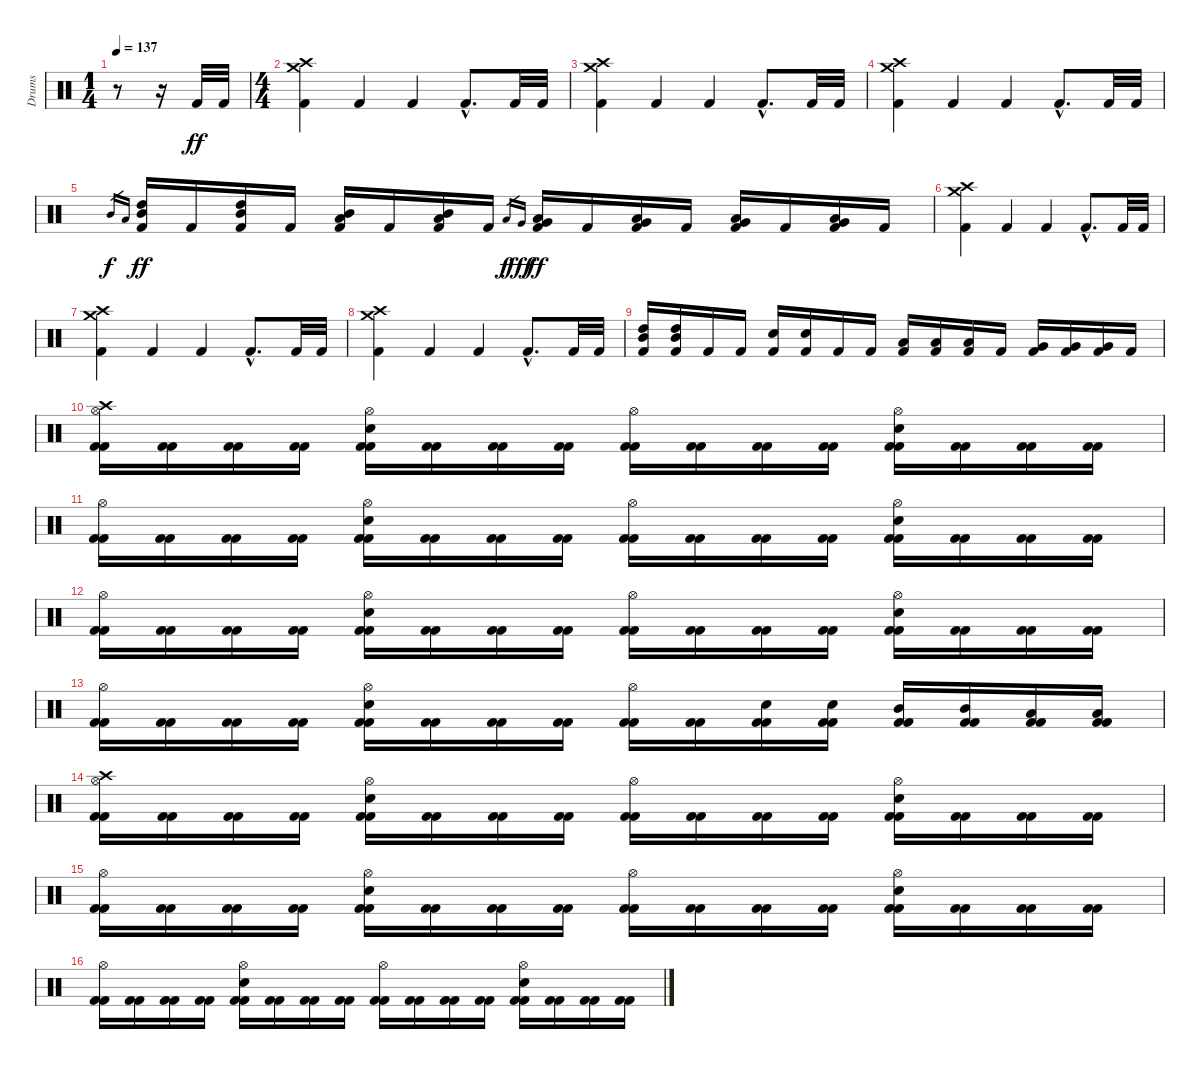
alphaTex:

\track ("Drums" "Drums") {instrument percussion}
\staff {score}
\articulation defaults
\ts (1 4)
\tempo 137
\clef neutral
\ks c
r.8{dy ff} r.16 "Kick (hit) 2".32 "Kick (hit) 2".32 |
\ts (4 4)
("Crash medium (hit)" "Crash high (hit)" "Kick (hit) 2").4 "Kick (hit) 2".4 "Kick (hit) 2".4 "Kick (hit) 2"{hac}.8{d} "Kick (hit) 2".32 "Kick (hit) 2".32 |
("Crash medium (hit)" "Crash high (hit)" "Kick (hit) 2").4 "Kick (hit) 2".4 "Kick (hit) 2".4 "Kick (hit) 2"{hac}.8{d} "Kick (hit) 2".32 "Kick (hit) 2".32 |
("Crash medium (hit)" "Crash high (hit)" "Kick (hit) 2").4 "Kick (hit) 2".4 "Kick (hit) 2".4 "Kick (hit) 2"{hac}.8{d} "Kick (hit) 2".32 "Kick (hit) 2".32 |
"Mid Tom (hit)".16{gr dy f} "Low Tom (hit)".16{gr} ("High Tom (hit)" "Mid Tom (hit)" "Kick (hit) 2").16{dy ff} "Kick (hit) 2".16 ("High Tom (hit)" "Mid Tom (hit)" "Kick (hit) 2").16 "Kick (hit) 2".16 ("Mid Tom (hit)" "Low Tom (hit)" "Kick (hit) 2").16 "Kick (hit) 2".16 ("Mid Tom (hit)" "Low Tom (hit)" "Kick (hit) 2").16 "Kick (hit) 2".16 "Low Tom (hit)".16{gr dy f} "Very Low Tom (hit)".16{gr dy fff} ("Low Tom (hit)" "Very Low Tom (hit)" "Kick (hit) 2").16{dy ff} "Kick (hit) 2".16 ("Low Tom (hit)" "Very Low Tom (hit)" "Kick (hit) 2").16 "Kick (hit) 2".16 ("Very Low Tom (hit)" "Low Floor Tom (hit)" "Kick (hit) 2").16 "Kick (hit) 2".16 ("Very Low Tom (hit)" "Low Floor Tom (hit)" "Kick (hit) 2").16 "Kick (hit) 2".16 |
("Crash medium (hit)" "Crash high (hit)" "Kick (hit) 2").4 "Kick (hit) 2".4 "Kick (hit) 2".4 "Kick (hit) 2"{hac}.8{d} "Kick (hit) 2".32 "Kick (hit) 2".32 |
("Crash medium (hit)" "Crash high (hit)" "Kick (hit) 2").4 "Kick (hit) 2".4 "Kick (hit) 2".4 "Kick (hit) 2"{hac}.8{d} "Kick (hit) 2".32 "Kick (hit) 2".32 |
("Crash medium (hit)" "Crash high (hit)" "Kick (hit) 2").4 "Kick (hit) 2".4 "Kick (hit) 2".4 "Kick (hit) 2"{hac}.8{d} "Kick (hit) 2".32 "Kick (hit) 2".32 |
("High Tom (hit)" "Mid Tom (hit)" "Kick (hit) 2").16 ("High Tom (hit)" "Mid Tom (hit)" "Kick (hit) 2").16 "Kick (hit) 2".16 "Kick (hit) 2".16 ("Electric Snare (hit)" "Kick (hit) 2").16 ("Electric Snare (hit)" "Kick (hit) 2").16 "Kick (hit) 2".16 "Kick (hit) 2".16 ("Low Tom (hit)" "Kick (hit) 2").16 ("Low Tom (hit)" "Kick (hit) 2").16 ("Low Tom (hit)" "Kick (hit) 2").16 "Kick (hit) 2".16 ("Very Low Tom (hit)" "Kick (hit) 2").16 ("Very Low Tom (hit)" "Kick (hit) 2").16 ("Very Low Tom (hit)" "Kick (hit) 2").16 "Kick (hit) 2".16 |
("Hi-Hat (open)" "Crash high (hit)" "Kick (hit) 2" "Kick (hit) 2").16 ("Kick (hit) 2" "Kick (hit) 2").16 ("Kick (hit) 2" "Kick (hit) 2").16 ("Kick (hit) 2" "Kick (hit) 2").16 ("Hi-Hat (open)" "Electric Snare (hit)" "Kick (hit) 2" "Kick (hit) 2").16 ("Kick (hit) 2" "Kick (hit) 2").16 ("Kick (hit) 2" "Kick (hit) 2").16 ("Kick (hit) 2" "Kick (hit) 2").16 ("Hi-Hat (open)" "Kick (hit) 2" "Kick (hit) 2").16 ("Kick (hit) 2" "Kick (hit) 2").16 ("Kick (hit) 2" "Kick (hit) 2").16 ("Kick (hit) 2" "Kick (hit) 2").16 ("Hi-Hat (open)" "Electric Snare (hit)" "Kick (hit) 2" "Kick (hit) 2").16 ("Kick (hit) 2" "Kick (hit) 2").16 ("Kick (hit) 2" "Kick (hit) 2").16 ("Kick (hit) 2" "Kick (hit) 2").16 |
("Hi-Hat (open)" "Kick (hit) 2" "Kick (hit) 2").16 ("Kick (hit) 2" "Kick (hit) 2").16 ("Kick (hit) 2" "Kick (hit) 2").16 ("Kick (hit) 2" "Kick (hit) 2").16 ("Hi-Hat (open)" "Electric Snare (hit)" "Kick (hit) 2" "Kick (hit) 2").16 ("Kick (hit) 2" "Kick (hit) 2").16 ("Kick (hit) 2" "Kick (hit) 2").16 ("Kick (hit) 2" "Kick (hit) 2").16 ("Hi-Hat (open)" "Kick (hit) 2" "Kick (hit) 2").16 ("Kick (hit) 2" "Kick (hit) 2").16 ("Kick (hit) 2" "Kick (hit) 2").16 ("Kick (hit) 2" "Kick (hit) 2").16 ("Hi-Hat (open)" "Electric Snare (hit)" "Kick (hit) 2" "Kick (hit) 2").16 ("Kick (hit) 2" "Kick (hit) 2").16 ("Kick (hit) 2" "Kick (hit) 2").16 ("Kick (hit) 2" "Kick (hit) 2").16 |
("Hi-Hat (open)" "Kick (hit) 2" "Kick (hit) 2").16 ("Kick (hit) 2" "Kick (hit) 2").16 ("Kick (hit) 2" "Kick (hit) 2").16 ("Kick (hit) 2" "Kick (hit) 2").16 ("Hi-Hat (open)" "Electric Snare (hit)" "Kick (hit) 2" "Kick (hit) 2").16 ("Kick (hit) 2" "Kick (hit) 2").16 ("Kick (hit) 2" "Kick (hit) 2").16 ("Kick (hit) 2" "Kick (hit) 2").16 ("Hi-Hat (open)" "Kick (hit) 2" "Kick (hit) 2").16 ("Kick (hit) 2" "Kick (hit) 2").16 ("Kick (hit) 2" "Kick (hit) 2").16 ("Kick (hit) 2" "Kick (hit) 2").16 ("Hi-Hat (open)" "Electric Snare (hit)" "Kick (hit) 2" "Kick (hit) 2").16 ("Kick (hit) 2" "Kick (hit) 2").16 ("Kick (hit) 2" "Kick (hit) 2").16 ("Kick (hit) 2" "Kick (hit) 2").16 |
("Hi-Hat (open)" "Kick (hit) 2" "Kick (hit) 2").16 ("Kick (hit) 2" "Kick (hit) 2").16 ("Kick (hit) 2" "Kick (hit) 2").16 ("Kick (hit) 2" "Kick (hit) 2").16 ("Hi-Hat (open)" "Electric Snare (hit)" "Kick (hit) 2" "Kick (hit) 2").16 ("Kick (hit) 2" "Kick (hit) 2").16 ("Kick (hit) 2" "Kick (hit) 2").16 ("Kick (hit) 2" "Kick (hit) 2").16 ("Hi-Hat (open)" "Kick (hit) 2" "Kick (hit) 2").16 ("Kick (hit) 2" "Kick (hit) 2").16 ("Electric Snare (hit)" "Kick (hit) 2" "Kick (hit) 2").16 ("Electric Snare (hit)" "Kick (hit) 2" "Kick (hit) 2").16 ("Mid Tom (hit)" "Kick (hit) 2" "Kick (hit) 2").16 ("Mid Tom (hit)" "Kick (hit) 2" "Kick (hit) 2").16 ("Low Tom (hit)" "Kick (hit) 2" "Kick (hit) 2").16 ("Low Tom (hit)" "Kick (hit) 2" "Kick (hit) 2").16 |
("Hi-Hat (open)" "Crash high (hit)" "Kick (hit) 2" "Kick (hit) 2").16 ("Kick (hit) 2" "Kick (hit) 2").16 ("Kick (hit) 2" "Kick (hit) 2").16 ("Kick (hit) 2" "Kick (hit) 2").16 ("Hi-Hat (open)" "Electric Snare (hit)" "Kick (hit) 2" "Kick (hit) 2").16 ("Kick (hit) 2" "Kick (hit) 2").16 ("Kick (hit) 2" "Kick (hit) 2").16 ("Kick (hit) 2" "Kick (hit) 2").16 ("Hi-Hat (open)" "Kick (hit) 2" "Kick (hit) 2").16 ("Kick (hit) 2" "Kick (hit) 2").16 ("Kick (hit) 2" "Kick (hit) 2").16 ("Kick (hit) 2" "Kick (hit) 2").16 ("Hi-Hat (open)" "Electric Snare (hit)" "Kick (hit) 2" "Kick (hit) 2").16 ("Kick (hit) 2" "Kick (hit) 2").16 ("Kick (hit) 2" "Kick (hit) 2").16 ("Kick (hit) 2" "Kick (hit) 2").16 |
("Hi-Hat (open)" "Kick (hit) 2" "Kick (hit) 2").16 ("Kick (hit) 2" "Kick (hit) 2").16 ("Kick (hit) 2" "Kick (hit) 2").16 ("Kick (hit) 2" "Kick (hit) 2").16 ("Hi-Hat (open)" "Electric Snare (hit)" "Kick (hit) 2" "Kick (hit) 2").16 ("Kick (hit) 2" "Kick (hit) 2").16 ("Kick (hit) 2" "Kick (hit) 2").16 ("Kick (hit) 2" "Kick (hit) 2").16 ("Hi-Hat (open)" "Kick (hit) 2" "Kick (hit) 2").16 ("Kick (hit) 2" "Kick (hit) 2").16 ("Kick (hit) 2" "Kick (hit) 2").16 ("Kick (hit) 2" "Kick (hit) 2").16 ("Hi-Hat (open)" "Electric Snare (hit)" "Kick (hit) 2" "Kick (hit) 2").16 ("Kick (hit) 2" "Kick (hit) 2").16 ("Kick (hit) 2" "Kick (hit) 2").16 ("Kick (hit) 2" "Kick (hit) 2").16 |
("Hi-Hat (open)" "Kick (hit) 2" "Kick (hit) 2").16 ("Kick (hit) 2" "Kick (hit) 2").16 ("Kick (hit) 2" "Kick (hit) 2").16 ("Kick (hit) 2" "Kick (hit) 2").16 ("Hi-Hat (open)" "Electric Snare (hit)" "Kick (hit) 2" "Kick (hit) 2").16 ("Kick (hit) 2" "Kick (hit) 2").16 ("Kick (hit) 2" "Kick (hit) 2").16 ("Kick (hit) 2" "Kick (hit) 2").16 ("Hi-Hat (open)" "Kick (hit) 2" "Kick (hit) 2").16 ("Kick (hit) 2" "Kick (hit) 2").16 ("Kick (hit) 2" "Kick (hit) 2").16 ("Kick (hit) 2" "Kick (hit) 2").16 ("Hi-Hat (open)" "Electric Snare (hit)" "Kick (hit) 2" "Kick (hit) 2").16 ("Kick (hit) 2" "Kick (hit) 2").16 ("Kick (hit) 2" "Kick (hit) 2").16 ("Kick (hit) 2" "Kick (hit) 2").16
